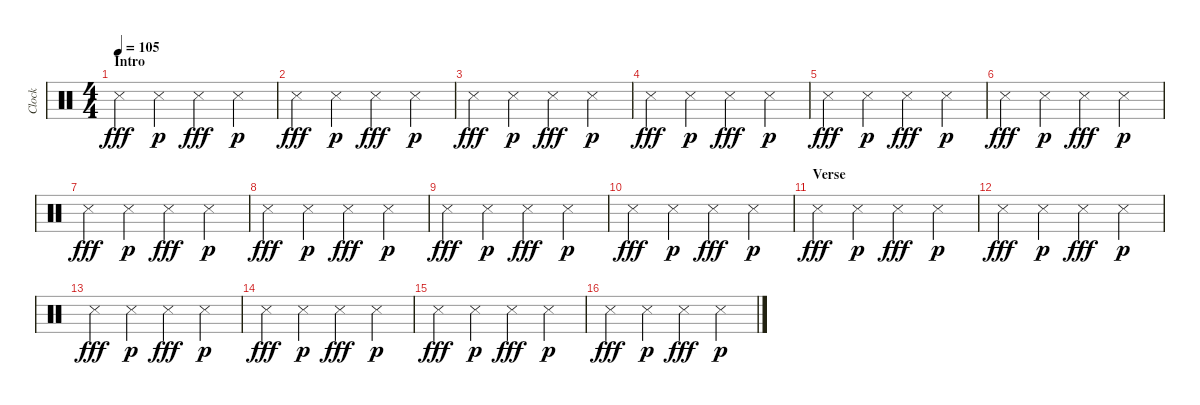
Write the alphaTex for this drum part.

\track ("Clock" "Clock") {instrument percussion}
\staff {score}
\articulation defaults
\ts (4 4)
\section ("" "Intro")
\tempo 105
\clef neutral
\ks c "Metronome (hit)".4{dy fff} "Metronome (hit)".4{dy p} "Metronome (hit)".4{dy fff} "Metronome (hit)".4{dy p}
|
"Metronome (hit)".4{dy fff} "Metronome (hit)".4{dy p} "Metronome (hit)".4{dy fff} "Metronome (hit)".4{dy p} |
"Metronome (hit)".4{dy fff} "Metronome (hit)".4{dy p} "Metronome (hit)".4{dy fff} "Metronome (hit)".4{dy p} |
"Metronome (hit)".4{dy fff} "Metronome (hit)".4{dy p} "Metronome (hit)".4{dy fff} "Metronome (hit)".4{dy p} |
"Metronome (hit)".4{dy fff} "Metronome (hit)".4{dy p} "Metronome (hit)".4{dy fff} "Metronome (hit)".4{dy p} |
"Metronome (hit)".4{dy fff} "Metronome (hit)".4{dy p} "Metronome (hit)".4{dy fff} "Metronome (hit)".4{dy p} |
"Metronome (hit)".4{dy fff} "Metronome (hit)".4{dy p} "Metronome (hit)".4{dy fff} "Metronome (hit)".4{dy p} |
"Metronome (hit)".4{dy fff} "Metronome (hit)".4{dy p} "Metronome (hit)".4{dy fff} "Metronome (hit)".4{dy p} |
"Metronome (hit)".4{dy fff} "Metronome (hit)".4{dy p} "Metronome (hit)".4{dy fff} "Metronome (hit)".4{dy p} |
"Metronome (hit)".4{dy fff} "Metronome (hit)".4{dy p} "Metronome (hit)".4{dy fff} "Metronome (hit)".4{dy p} |
\section ("" "Verse")
"Metronome (hit)".4{dy fff} "Metronome (hit)".4{dy p} "Metronome (hit)".4{dy fff} "Metronome (hit)".4{dy p} |
"Metronome (hit)".4{dy fff} "Metronome (hit)".4{dy p} "Metronome (hit)".4{dy fff} "Metronome (hit)".4{dy p} |
"Metronome (hit)".4{dy fff} "Metronome (hit)".4{dy p} "Metronome (hit)".4{dy fff} "Metronome (hit)".4{dy p} |
"Metronome (hit)".4{dy fff} "Metronome (hit)".4{dy p} "Metronome (hit)".4{dy fff} "Metronome (hit)".4{dy p} |
"Metronome (hit)".4{dy fff} "Metronome (hit)".4{dy p} "Metronome (hit)".4{dy fff} "Metronome (hit)".4{dy p} |
"Metronome (hit)".4{dy fff} "Metronome (hit)".4{dy p} "Metronome (hit)".4{dy fff} "Metronome (hit)".4{dy p}
